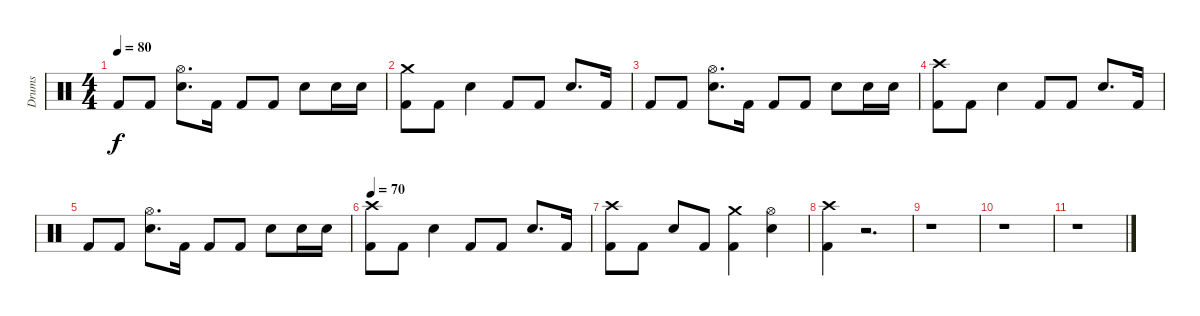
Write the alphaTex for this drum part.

\track ("Drums" "Drums") {instrument percussion}
\staff {score}
\articulation defaults
\ts (4 4)
\tempo 80
\clef neutral
\ks c "Kick (hit) 2".8{dy f} "Kick (hit) 2".8
("Snare (hit) 2" "Hi-Hat (open)").8{d} "Kick (hit) 2".16 "Kick (hit) 2".8 "Kick (hit) 2".8 "Snare (hit) 2".8 "Snare (hit) 2".16 "Snare (hit) 2".16 |
("Kick (hit) 2" "Crash medium (hit)").8 "Kick (hit) 2".8 "Snare (hit) 2".4 "Kick (hit) 2".8 "Kick (hit) 2".8 "Snare (hit) 2".8{d} "Kick (hit) 2".16 |
"Kick (hit) 2".8 "Kick (hit) 2".8 ("Snare (hit) 2" "Hi-Hat (open)").8{d} "Kick (hit) 2".16 "Kick (hit) 2".8 "Kick (hit) 2".8 "Snare (hit) 2".8 "Snare (hit) 2".16 "Snare (hit) 2".16 |
("Kick (hit) 2" "Crash high (hit)").8 "Kick (hit) 2".8 "Snare (hit) 2".4 "Kick (hit) 2".8 "Kick (hit) 2".8 "Snare (hit) 2".8{d} "Kick (hit) 2".16 |
"Kick (hit) 2".8 "Kick (hit) 2".8 ("Snare (hit) 2" "Hi-Hat (open)").8{d} "Kick (hit) 2".16 "Kick (hit) 2".8 "Kick (hit) 2".8 "Snare (hit) 2".8 "Snare (hit) 2".16 "Snare (hit) 2".16 |
\tempo 70
("Kick (hit) 2" "Crash high (hit)").8 "Kick (hit) 2".8 "Snare (hit) 2".4 "Kick (hit) 2".8 "Kick (hit) 2".8 "Snare (hit) 2".8{d} "Kick (hit) 2".16 |
("Kick (hit) 2" "Crash high (hit)").8 "Kick (hit) 2".8 "Snare (hit) 2".8 "Kick (hit) 2".8 ("Kick (hit) 2" "Crash medium (hit)").4 ("Snare (hit) 2" "Hi-Hat (open)").4 |
("Kick (hit) 2" "Crash high (hit)").4 r.2{d} |
r.1 |
r.1 |
r.1
